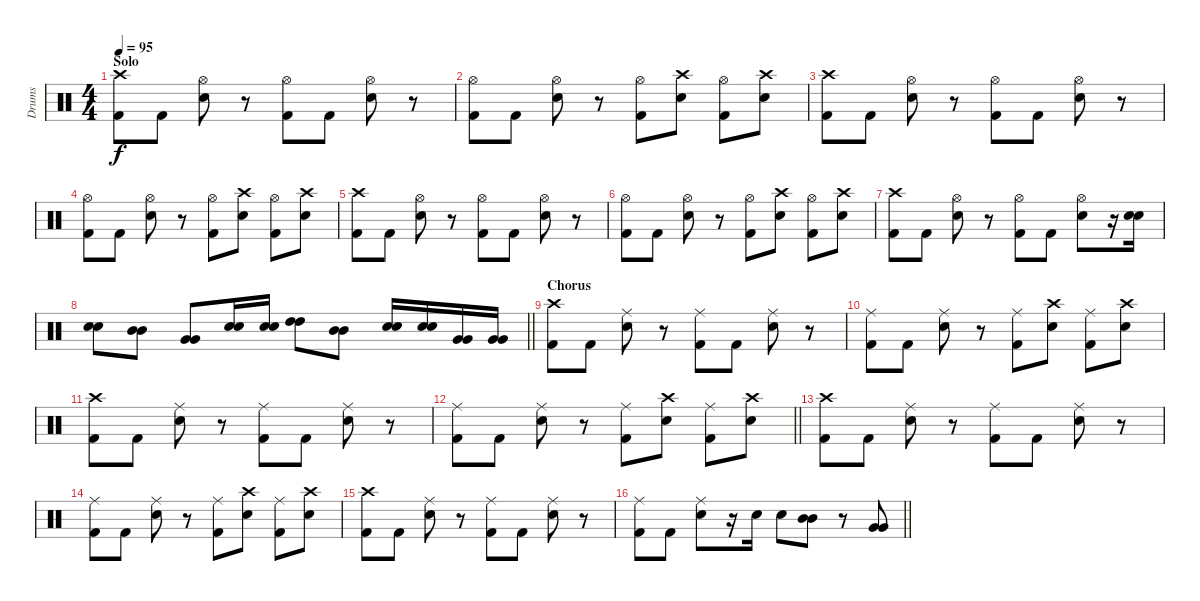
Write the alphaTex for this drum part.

\track ("Drums" "Drums") {instrument percussion}
\staff {score}
\articulation defaults
\ts (4 4)
\section ("" "Solo")
\tempo 95
\clef neutral
\ks c
("Crash high (hit)" "Kick (hit) 2").8{dy f} "Kick (hit) 2".8 ("Hi-Hat (open)" "Snare (hit) 2").8 r.8 ("Hi-Hat (open)" "Kick (hit) 2").8 "Kick (hit) 2".8 ("Hi-Hat (open)" "Snare (hit) 2").8 r.8 |
("Hi-Hat (open)" "Kick (hit) 2").8 "Kick (hit) 2".8 ("Hi-Hat (open)" "Snare (hit) 2").8 r.8 ("Hi-Hat (open)" "Kick (hit) 2").8 ("Crash high (hit)" "Snare (hit) 2").8 ("Hi-Hat (open)" "Kick (hit) 2").8 ("Crash high (hit)" "Snare (hit) 2").8 |
("Crash high (hit)" "Kick (hit) 2").8 "Kick (hit) 2".8 ("Hi-Hat (open)" "Snare (hit) 2").8 r.8 ("Hi-Hat (open)" "Kick (hit) 2").8 "Kick (hit) 2".8 ("Hi-Hat (open)" "Snare (hit) 2").8 r.8 |
("Hi-Hat (open)" "Kick (hit) 2").8 "Kick (hit) 2".8 ("Hi-Hat (open)" "Snare (hit) 2").8 r.8 ("Hi-Hat (open)" "Kick (hit) 2").8 ("Crash high (hit)" "Snare (hit) 2").8 ("Hi-Hat (open)" "Kick (hit) 2").8 ("Crash high (hit)" "Snare (hit) 2").8 |
("Crash high (hit)" "Kick (hit) 2").8 "Kick (hit) 2".8 ("Hi-Hat (open)" "Snare (hit) 2").8 r.8 ("Hi-Hat (open)" "Kick (hit) 2").8 "Kick (hit) 2".8 ("Hi-Hat (open)" "Snare (hit) 2").8 r.8 |
("Hi-Hat (open)" "Kick (hit) 2").8 "Kick (hit) 2".8 ("Hi-Hat (open)" "Snare (hit) 2").8 r.8 ("Hi-Hat (open)" "Kick (hit) 2").8 ("Crash high (hit)" "Snare (hit) 2").8 ("Hi-Hat (open)" "Kick (hit) 2").8 ("Crash high (hit)" "Snare (hit) 2").8 |
("Crash high (hit)" "Kick (hit) 2").8 "Kick (hit) 2".8 ("Hi-Hat (open)" "Snare (hit) 2").8 r.8 ("Hi-Hat (open)" "Kick (hit) 2").8 "Kick (hit) 2".8 ("Hi-Hat (open)" "Snare (hit) 2").8 r.16 ("Snare (hit) 2" "Snare (hit) 2").16 |
\barLineRight lightlight
("Snare (hit) 2" "Snare (hit) 2").8 ("Mid Tom (hit)" "Mid Tom (hit)").8 ("Very Low Tom (hit)" "Very Low Tom (hit)").8 ("Snare (hit) 2" "Snare (hit) 2").16 ("Snare (hit) 2" "Snare (hit) 2").16 ("High Tom (hit)" "High Tom (hit)").8 ("Mid Tom (hit)" "Mid Tom (hit)").8 ("Snare (hit) 2" "Snare (hit) 2").16 ("Snare (hit) 2" "Snare (hit) 2").16 ("Very Low Tom (hit)" "Very Low Tom (hit)").16 ("Very Low Tom (hit)" "Very Low Tom (hit)").16 |
\section ("" "Chorus")
("Crash high (hit)" "Kick (hit) 2").8 "Kick (hit) 2".8 ("Ride (middle)" "Snare (hit) 2").8 r.8 ("Ride (middle)" "Kick (hit) 2").8 "Kick (hit) 2".8 ("Ride (middle)" "Snare (hit) 2").8 r.8 |
("Ride (middle)" "Kick (hit) 2").8 "Kick (hit) 2".8 ("Ride (middle)" "Snare (hit) 2").8 r.8 ("Ride (middle)" "Kick (hit) 2").8 ("Crash high (hit)" "Snare (hit) 2").8 ("Ride (middle)" "Kick (hit) 2").8 ("Crash high (hit)" "Snare (hit) 2").8 |
("Crash high (hit)" "Kick (hit) 2").8 "Kick (hit) 2".8 ("Ride (middle)" "Snare (hit) 2").8 r.8 ("Ride (middle)" "Kick (hit) 2").8 "Kick (hit) 2".8 ("Ride (middle)" "Snare (hit) 2").8 r.8 |
\barLineRight lightlight
("Ride (middle)" "Kick (hit) 2").8 "Kick (hit) 2".8 ("Ride (middle)" "Snare (hit) 2").8 r.8 ("Ride (middle)" "Kick (hit) 2").8 ("Crash high (hit)" "Snare (hit) 2").8 ("Ride (middle)" "Kick (hit) 2").8 ("Crash high (hit)" "Snare (hit) 2").8 |
("Crash high (hit)" "Kick (hit) 2").8 "Kick (hit) 2".8 ("Ride (middle)" "Snare (hit) 2").8 r.8 ("Ride (middle)" "Kick (hit) 2").8 "Kick (hit) 2".8 ("Ride (middle)" "Snare (hit) 2").8 r.8 |
("Ride (middle)" "Kick (hit) 2").8 "Kick (hit) 2".8 ("Ride (middle)" "Snare (hit) 2").8 r.8 ("Ride (middle)" "Kick (hit) 2").8 ("Crash high (hit)" "Snare (hit) 2").8 ("Ride (middle)" "Kick (hit) 2").8 ("Crash high (hit)" "Snare (hit) 2").8 |
("Crash high (hit)" "Kick (hit) 2").8 "Kick (hit) 2".8 ("Ride (middle)" "Snare (hit) 2").8 r.8 ("Ride (middle)" "Kick (hit) 2").8 "Kick (hit) 2".8 ("Ride (middle)" "Snare (hit) 2").8 r.8 |
\barLineRight lightlight
("Ride (middle)" "Kick (hit) 2").8 "Kick (hit) 2".8 ("Ride (middle)" "Snare (hit) 2").8 r.16 "Snare (hit) 2".16 "Snare (hit) 2".8 ("Mid Tom (hit)" "Mid Tom (hit)").8 r.8 ("Very Low Tom (hit)" "Very Low Tom (hit)").8
